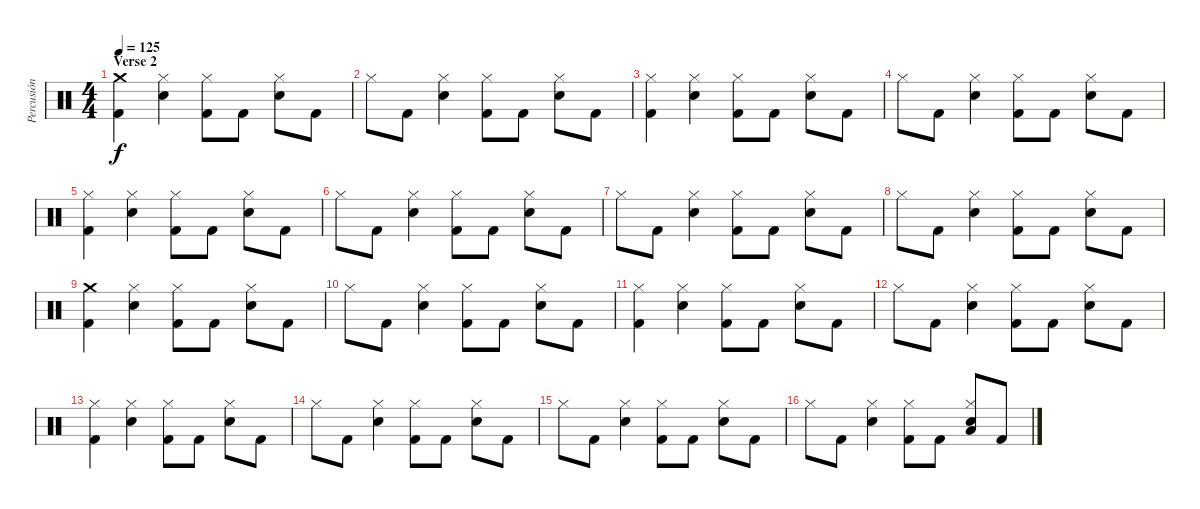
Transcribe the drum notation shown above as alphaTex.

\track ("Percusión" "Percusión") {instrument percussion}
\staff {score}
\articulation defaults
\ts (4 4)
\section ("" "Verse 2")
\tempo 125
\clef neutral
\ks c
("Crash medium (hit)" "Kick (hit) 2").4{dy f} ("Snare (hit) 2" "Hi-Hat (closed)").4 ("Kick (hit) 2" "Hi-Hat (closed)").8 "Kick (hit) 2".8 ("Hi-Hat (closed)" "Snare (hit) 2").8 "Kick (hit) 2".8 |
"Hi-Hat (closed)".8 "Kick (hit) 2".8 ("Hi-Hat (closed)" "Snare (hit) 2").4 ("Hi-Hat (closed)" "Kick (hit) 2").8 "Kick (hit) 2".8 ("Hi-Hat (closed)" "Snare (hit) 2").8 "Kick (hit) 2".8 |
("Hi-Hat (closed)" "Kick (hit) 2").4 ("Snare (hit) 2" "Hi-Hat (closed)").4 ("Kick (hit) 2" "Hi-Hat (closed)").8 "Kick (hit) 2".8 ("Hi-Hat (closed)" "Snare (hit) 2").8 "Kick (hit) 2".8 |
"Hi-Hat (closed)".8 "Kick (hit) 2".8 ("Hi-Hat (closed)" "Snare (hit) 2").4 ("Hi-Hat (closed)" "Kick (hit) 2").8 "Kick (hit) 2".8 ("Hi-Hat (closed)" "Snare (hit) 2").8 "Kick (hit) 2".8 |
("Hi-Hat (closed)" "Kick (hit) 2").4 ("Snare (hit) 2" "Hi-Hat (closed)").4 ("Kick (hit) 2" "Hi-Hat (closed)").8 "Kick (hit) 2".8 ("Hi-Hat (closed)" "Snare (hit) 2").8 "Kick (hit) 2".8 |
"Hi-Hat (closed)".8 "Kick (hit) 2".8 ("Hi-Hat (closed)" "Snare (hit) 2").4 ("Hi-Hat (closed)" "Kick (hit) 2").8 "Kick (hit) 2".8 ("Hi-Hat (closed)" "Snare (hit) 2").8 "Kick (hit) 2".8 |
"Hi-Hat (closed)".8 "Kick (hit) 2".8 ("Hi-Hat (closed)" "Snare (hit) 2").4 ("Hi-Hat (closed)" "Kick (hit) 2").8 "Kick (hit) 2".8 ("Hi-Hat (closed)" "Snare (hit) 2").8 "Kick (hit) 2".8 |
"Hi-Hat (closed)".8 "Kick (hit) 2".8 ("Hi-Hat (closed)" "Snare (hit) 2").4 ("Hi-Hat (closed)" "Kick (hit) 2").8 "Kick (hit) 2".8 ("Hi-Hat (closed)" "Snare (hit) 2").8 "Kick (hit) 2".8 |
("Crash medium (hit)" "Kick (hit) 2").4 ("Snare (hit) 2" "Hi-Hat (closed)").4 ("Kick (hit) 2" "Hi-Hat (closed)").8 "Kick (hit) 2".8 ("Hi-Hat (closed)" "Snare (hit) 2").8 "Kick (hit) 2".8 |
"Hi-Hat (closed)".8 "Kick (hit) 2".8 ("Hi-Hat (closed)" "Snare (hit) 2").4 ("Hi-Hat (closed)" "Kick (hit) 2").8 "Kick (hit) 2".8 ("Hi-Hat (closed)" "Snare (hit) 2").8 "Kick (hit) 2".8 |
("Hi-Hat (closed)" "Kick (hit) 2").4 ("Snare (hit) 2" "Hi-Hat (closed)").4 ("Kick (hit) 2" "Hi-Hat (closed)").8 "Kick (hit) 2".8 ("Hi-Hat (closed)" "Snare (hit) 2").8 "Kick (hit) 2".8 |
"Hi-Hat (closed)".8 "Kick (hit) 2".8 ("Hi-Hat (closed)" "Snare (hit) 2").4 ("Hi-Hat (closed)" "Kick (hit) 2").8 "Kick (hit) 2".8 ("Hi-Hat (closed)" "Snare (hit) 2").8 "Kick (hit) 2".8 |
("Hi-Hat (closed)" "Kick (hit) 2").4 ("Snare (hit) 2" "Hi-Hat (closed)").4 ("Kick (hit) 2" "Hi-Hat (closed)").8 "Kick (hit) 2".8 ("Hi-Hat (closed)" "Snare (hit) 2").8 "Kick (hit) 2".8 |
"Hi-Hat (closed)".8 "Kick (hit) 2".8 ("Hi-Hat (closed)" "Snare (hit) 2").4 ("Hi-Hat (closed)" "Kick (hit) 2").8 "Kick (hit) 2".8 ("Hi-Hat (closed)" "Snare (hit) 2").8 "Kick (hit) 2".8 |
"Hi-Hat (closed)".8 "Kick (hit) 2".8 ("Hi-Hat (closed)" "Snare (hit) 2").4 ("Hi-Hat (closed)" "Kick (hit) 2").8 "Kick (hit) 2".8 ("Hi-Hat (closed)" "Snare (hit) 2").8 "Kick (hit) 2".8 |
"Hi-Hat (closed)".8 "Kick (hit) 2".8 ("Hi-Hat (closed)" "Snare (hit) 2").4 ("Hi-Hat (closed)" "Kick (hit) 2").8 "Kick (hit) 2".8 ("Hi-Hat (closed)" "Snare (hit) 2" "Low Floor Tom (hit)").8 "Kick (hit) 2".8
